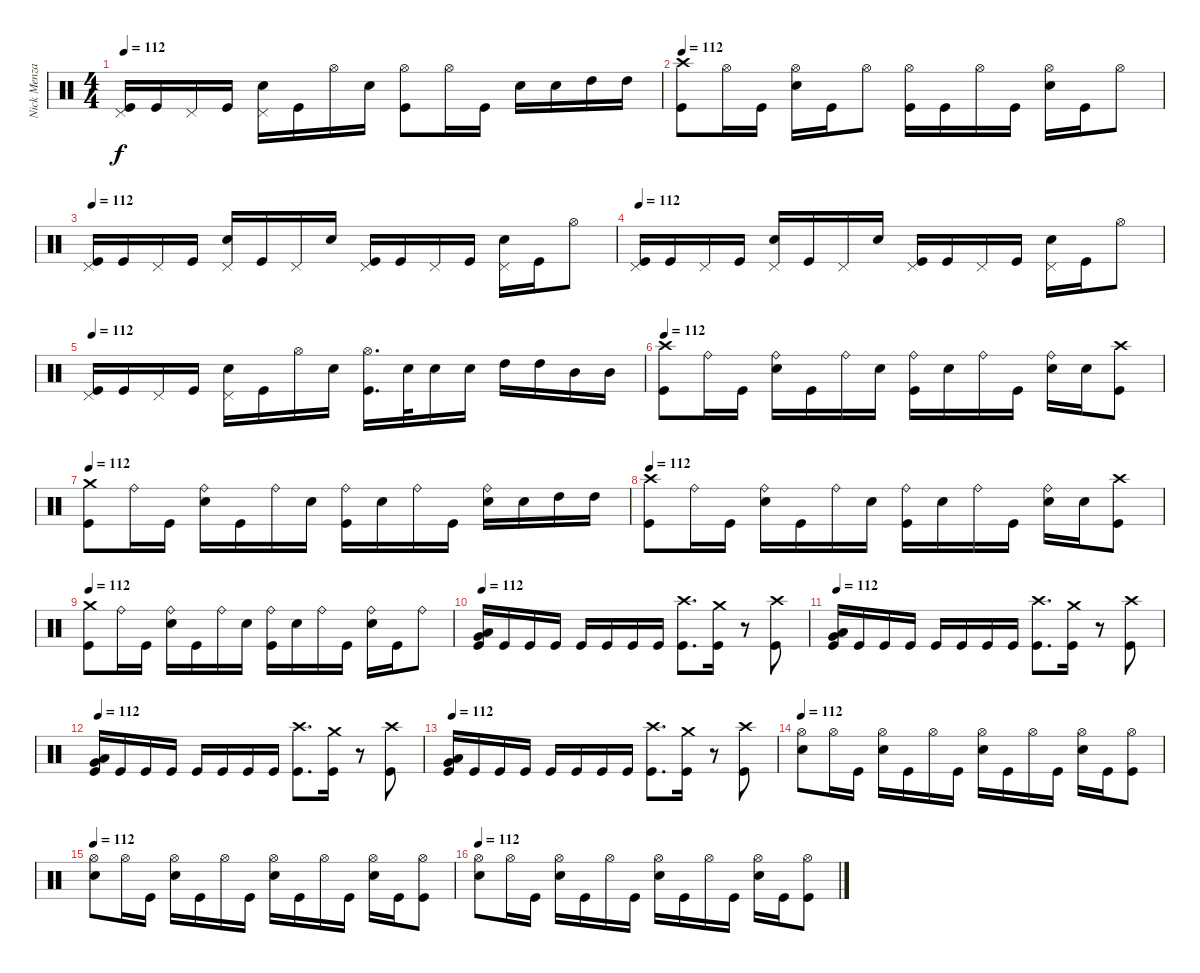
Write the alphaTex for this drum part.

\track ("Nick Menza" "Nick Menza") {instrument percussion}
\staff {score}
\articulation defaults
\ts (4 4)
\tempo 112
\clef neutral
\ks c
("Pedal Hi-Hat (hit)" "Kick (hit)").16{dy f} "Kick (hit)".16 "Pedal Hi-Hat (hit)".16 "Kick (hit)".16 ("Pedal Hi-Hat (hit)" "Snare (hit) 2").16 "Kick (hit)".16 "Hi-Hat (open)".16 "Snare (hit) 2".16 ("Hi-Hat (open)" "Kick (hit)").8 "Hi-Hat (open)".16 "Kick (hit)".16 "Snare (hit) 2".16 "Snare (hit) 2".16 "High Tom (hit)".16 "High Tom (hit)".16 |
\tempo 112
("Crash high (hit)" "Kick (hit)").8 "Hi-Hat (open)".16 "Kick (hit)".16 ("Hi-Hat (open)" "Snare (hit) 2").16 "Kick (hit)".16 "Hi-Hat (open)".8 ("Hi-Hat (open)" "Kick (hit)").16 "Kick (hit)".16 "Hi-Hat (open)".16 "Kick (hit)".16 ("Hi-Hat (open)" "Snare (hit) 2").16 "Kick (hit)".16 "Hi-Hat (open)".8 |
\tempo 112
("Pedal Hi-Hat (hit)" "Kick (hit)").16 "Kick (hit)".16 "Pedal Hi-Hat (hit)".16 "Kick (hit)".16 ("Pedal Hi-Hat (hit)" "Snare (hit) 2").16 "Kick (hit)".16 "Pedal Hi-Hat (hit)".16 "Snare (hit) 2".16 ("Pedal Hi-Hat (hit)" "Kick (hit)").16 "Kick (hit)".16 "Pedal Hi-Hat (hit)".16 "Kick (hit)".16 ("Pedal Hi-Hat (hit)" "Snare (hit) 2").16 "Kick (hit)".16 "Hi-Hat (open)".8 |
\tempo 112
("Pedal Hi-Hat (hit)" "Kick (hit)").16 "Kick (hit)".16 "Pedal Hi-Hat (hit)".16 "Kick (hit)".16 ("Pedal Hi-Hat (hit)" "Snare (hit) 2").16 "Kick (hit)".16 "Pedal Hi-Hat (hit)".16 "Snare (hit) 2".16 ("Pedal Hi-Hat (hit)" "Kick (hit)").16 "Kick (hit)".16 "Pedal Hi-Hat (hit)".16 "Kick (hit)".16 ("Pedal Hi-Hat (hit)" "Snare (hit) 2").16 "Kick (hit)".16 "Hi-Hat (open)".8 |
\tempo 112
("Pedal Hi-Hat (hit)" "Kick (hit)").16 "Kick (hit)".16 "Pedal Hi-Hat (hit)".16 "Kick (hit)".16 ("Pedal Hi-Hat (hit)" "Snare (hit) 2").16 "Kick (hit)".16 "Hi-Hat (open)".16 "Snare (hit) 2".16 ("Hi-Hat (open)" "Kick (hit)").16{d} "Snare (hit) 2".32 "Snare (hit) 2".16 "Snare (hit) 2".16 "High Tom (hit)".16 "High Tom (hit)".16 "Mid Tom (hit)".16 "Mid Tom (hit)".16 |
\tempo 112
("Crash high (hit)" "Kick (hit)").8 "Ride (bell)".16 "Kick (hit)".16 ("Ride (bell)" "Snare (hit) 2").16 "Kick (hit)".16 "Ride (bell)".16 "Snare (hit) 2".16 ("Ride (bell)" "Kick (hit)").16 "Snare (hit) 2".16 "Ride (bell)".16 "Kick (hit)".16 ("Ride (bell)" "Snare (hit) 2").16 "Snare (hit) 2".16 ("Crash high (hit)" "Kick (hit)").8 |
\tempo 112
("Crash medium (hit)" "Kick (hit)").8 "Ride (bell)".16 "Kick (hit)".16 ("Ride (bell)" "Snare (hit) 2").16 "Kick (hit)".16 "Ride (bell)".16 "Snare (hit) 2".16 ("Ride (bell)" "Kick (hit)").16 "Snare (hit) 2".16 "Ride (bell)".16 "Kick (hit)".16 ("Ride (bell)" "Snare (hit) 2").16 "Snare (hit) 2".16 "High Tom (hit)".16 "High Tom (hit)".16 |
\tempo 112
("Crash high (hit)" "Kick (hit)").8 "Ride (bell)".16 "Kick (hit)".16 ("Ride (bell)" "Snare (hit) 2").16 "Kick (hit)".16 "Ride (bell)".16 "Snare (hit) 2".16 ("Ride (bell)" "Kick (hit)").16 "Snare (hit) 2".16 "Ride (bell)".16 "Kick (hit)".16 ("Ride (bell)" "Snare (hit) 2").16 "Snare (hit) 2".16 ("Crash high (hit)" "Kick (hit)").8 |
\tempo 112
("Crash medium (hit)" "Kick (hit)").8 "Ride (bell)".16 "Kick (hit)".16 ("Ride (bell)" "Snare (hit) 2").16 "Kick (hit)".16 "Ride (bell)".16 "Snare (hit) 2".16 ("Ride (bell)" "Kick (hit)").16 "Snare (hit) 2".16 "Ride (bell)".16 "Kick (hit)".16 ("Ride (bell)" "Snare (hit) 2").16 "Kick (hit)".16 "Ride (bell)".8 |
\tempo 112
("Very Low Tom (hit)" "Low Floor Tom (hit)" "Kick (hit)").16 "Kick (hit)".16 "Kick (hit)".16 "Kick (hit)".16 "Kick (hit)".16 "Kick (hit)".16 "Kick (hit)".16 "Kick (hit)".16 ("Crash high (hit)" "Kick (hit)").8{d} ("Crash medium (hit)" "Kick (hit)").16 r.8 ("Crash high (hit)" "Kick (hit)").8 |
\tempo 112
("Very Low Tom (hit)" "Low Floor Tom (hit)" "Kick (hit)").16 "Kick (hit)".16 "Kick (hit)".16 "Kick (hit)".16 "Kick (hit)".16 "Kick (hit)".16 "Kick (hit)".16 "Kick (hit)".16 ("Crash high (hit)" "Kick (hit)").8{d} ("Crash medium (hit)" "Kick (hit)").16 r.8 ("Crash high (hit)" "Kick (hit)").8 |
\tempo 112
("Very Low Tom (hit)" "Low Floor Tom (hit)" "Kick (hit)").16 "Kick (hit)".16 "Kick (hit)".16 "Kick (hit)".16 "Kick (hit)".16 "Kick (hit)".16 "Kick (hit)".16 "Kick (hit)".16 ("Crash high (hit)" "Kick (hit)").8{d} ("Crash medium (hit)" "Kick (hit)").16 r.8 ("Crash high (hit)" "Kick (hit)").8 |
\tempo 112
("Very Low Tom (hit)" "Low Floor Tom (hit)" "Kick (hit)").16 "Kick (hit)".16 "Kick (hit)".16 "Kick (hit)".16 "Kick (hit)".16 "Kick (hit)".16 "Kick (hit)".16 "Kick (hit)".16 ("Crash high (hit)" "Kick (hit)").8{d} ("Crash medium (hit)" "Kick (hit)").16 r.8 ("Crash high (hit)" "Kick (hit)").8 |
\tempo 112
("Hi-Hat (open)" "Snare (hit) 2").8 "Hi-Hat (open)".16 "Kick (hit)".16 ("Hi-Hat (open)" "Snare (hit) 2").16 "Kick (hit)".16 "Hi-Hat (open)".16 "Kick (hit)".16 ("Hi-Hat (open)" "Snare (hit) 2").16 "Kick (hit)".16 "Hi-Hat (open)".16 "Kick (hit)".16 ("Hi-Hat (open)" "Snare (hit) 2").16 "Kick (hit)".16 ("Hi-Hat (open)" "Kick (hit)").8 |
\tempo 112
("Hi-Hat (open)" "Snare (hit) 2").8 "Hi-Hat (open)".16 "Kick (hit)".16 ("Hi-Hat (open)" "Snare (hit) 2").16 "Kick (hit)".16 "Hi-Hat (open)".16 "Kick (hit)".16 ("Hi-Hat (open)" "Snare (hit) 2").16 "Kick (hit)".16 "Hi-Hat (open)".16 "Kick (hit)".16 ("Hi-Hat (open)" "Snare (hit) 2").16 "Kick (hit)".16 ("Hi-Hat (open)" "Kick (hit)").8 |
\tempo 112
("Hi-Hat (open)" "Snare (hit) 2").8 "Hi-Hat (open)".16 "Kick (hit)".16 ("Hi-Hat (open)" "Snare (hit) 2").16 "Kick (hit)".16 "Hi-Hat (open)".16 "Kick (hit)".16 ("Hi-Hat (open)" "Snare (hit) 2").16 "Kick (hit)".16 "Hi-Hat (open)".16 "Kick (hit)".16 ("Hi-Hat (open)" "Snare (hit) 2").16 "Kick (hit)".16 ("Hi-Hat (open)" "Kick (hit)").8
